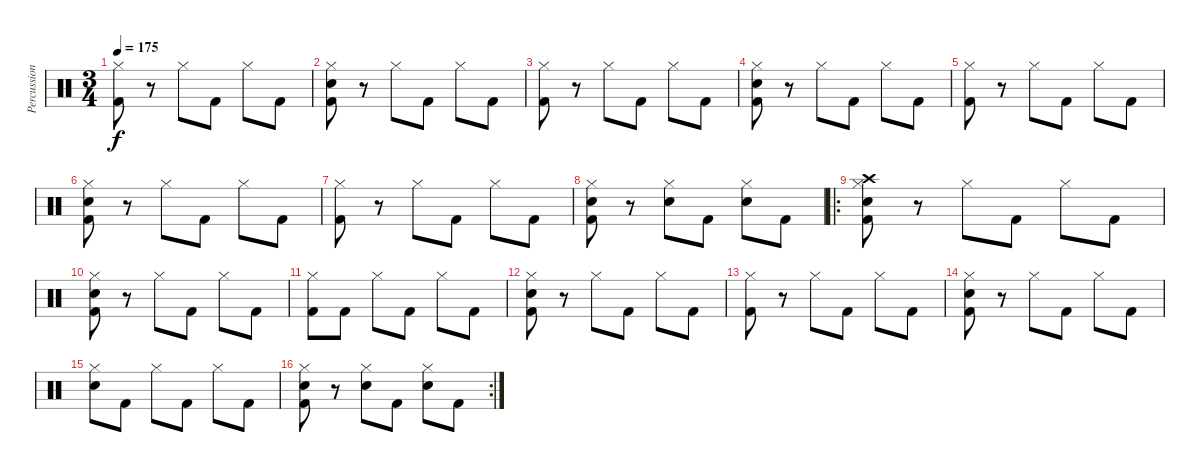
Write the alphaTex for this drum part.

\track ("Percussion" "Percussion") {instrument percussion}
\staff {score}
\articulation defaults
\ts (3 4)
\tempo 175
\clef neutral
\ks c
("Hi-Hat (closed)" "Kick (hit) 2").8{dy f} r.8 "Hi-Hat (closed)".8 "Kick (hit) 2".8 "Hi-Hat (closed)".8 "Kick (hit) 2".8 |
("Hi-Hat (closed)" "Electric Snare (hit)" "Kick (hit) 2").8 r.8 "Hi-Hat (closed)".8 "Kick (hit) 2".8 "Hi-Hat (closed)".8 "Kick (hit) 2".8 |
("Hi-Hat (closed)" "Kick (hit) 2").8 r.8 "Hi-Hat (closed)".8 "Kick (hit) 2".8 "Hi-Hat (closed)".8 "Kick (hit) 2".8 |
("Hi-Hat (closed)" "Electric Snare (hit)" "Kick (hit) 2").8 r.8 "Hi-Hat (closed)".8 "Kick (hit) 2".8 "Hi-Hat (closed)".8 "Kick (hit) 2".8 |
("Hi-Hat (closed)" "Kick (hit) 2").8 r.8 "Hi-Hat (closed)".8 "Kick (hit) 2".8 "Hi-Hat (closed)".8 "Kick (hit) 2".8 |
("Hi-Hat (closed)" "Electric Snare (hit)" "Kick (hit) 2").8 r.8 "Hi-Hat (closed)".8 "Kick (hit) 2".8 "Hi-Hat (closed)".8 "Kick (hit) 2".8 |
("Hi-Hat (closed)" "Kick (hit) 2").8 r.8 "Hi-Hat (closed)".8 "Kick (hit) 2".8 "Hi-Hat (closed)".8 "Kick (hit) 2".8 |
("Hi-Hat (closed)" "Electric Snare (hit)" "Kick (hit) 2").8 r.8 ("Hi-Hat (closed)" "Electric Snare (hit)").8 "Kick (hit) 2".8 ("Hi-Hat (closed)" "Electric Snare (hit)").8 "Kick (hit) 2".8 |
\ro
("Hi-Hat (closed)" "Crash high (hit)" "Electric Snare (hit)" "Kick (hit) 2").8 r.8 "Hi-Hat (closed)".8 "Kick (hit) 2".8 "Hi-Hat (closed)".8 "Kick (hit) 2".8 |
("Hi-Hat (closed)" "Electric Snare (hit)" "Kick (hit) 2").8 r.8 "Hi-Hat (closed)".8 "Kick (hit) 2".8 "Hi-Hat (closed)".8 "Kick (hit) 2".8 |
("Hi-Hat (closed)" "Kick (hit) 2").8 "Kick (hit) 2".8 "Hi-Hat (closed)".8 "Kick (hit) 2".8 "Hi-Hat (closed)".8 "Kick (hit) 2".8 |
("Hi-Hat (closed)" "Electric Snare (hit)" "Kick (hit) 2").8 r.8 "Hi-Hat (closed)".8 "Kick (hit) 2".8 "Hi-Hat (closed)".8 "Kick (hit) 2".8 |
("Hi-Hat (closed)" "Kick (hit) 2").8 r.8 "Hi-Hat (closed)".8 "Kick (hit) 2".8 "Hi-Hat (closed)".8 "Kick (hit) 2".8 |
("Hi-Hat (closed)" "Electric Snare (hit)" "Kick (hit) 2").8 r.8 "Hi-Hat (closed)".8 "Kick (hit) 2".8 "Hi-Hat (closed)".8 "Kick (hit) 2".8 |
("Hi-Hat (closed)" "Electric Snare (hit)").8 "Kick (hit) 2".8 "Hi-Hat (closed)".8 "Kick (hit) 2".8 "Hi-Hat (closed)".8 "Kick (hit) 2".8 |
\rc 2
("Hi-Hat (closed)" "Electric Snare (hit)" "Kick (hit) 2").8 r.8 ("Hi-Hat (closed)" "Electric Snare (hit)").8 "Kick (hit) 2".8 ("Hi-Hat (closed)" "Electric Snare (hit)").8 "Kick (hit) 2".8
